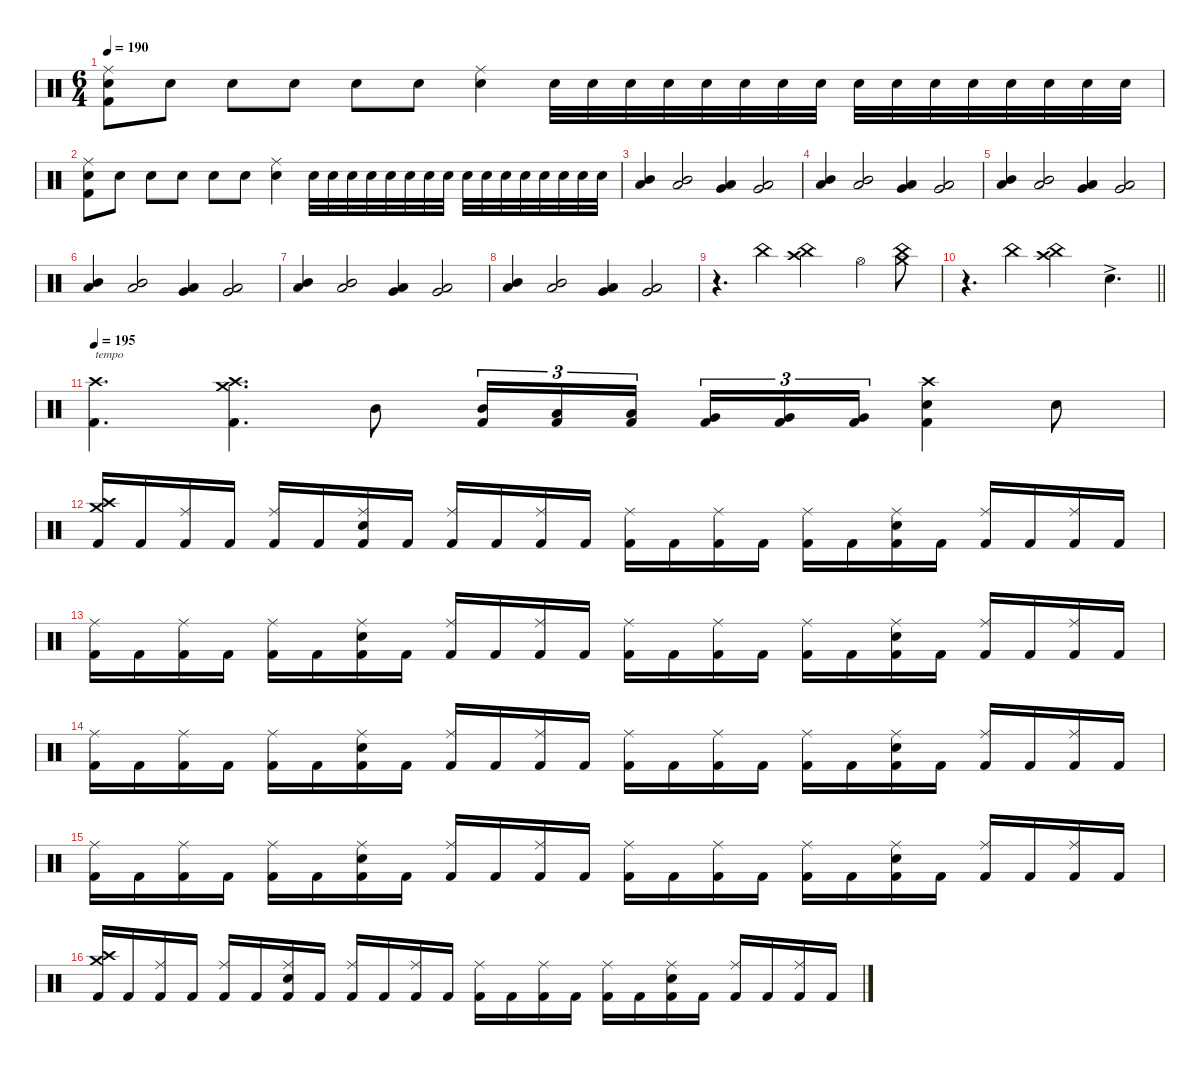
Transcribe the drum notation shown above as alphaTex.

\defaultSystemsLayout 4
\hideDynamics
\bracketExtendMode nobrackets
\singleTrackTrackNamePolicy hidden
\multiTrackTrackNamePolicy hidden
\firstSystemTrackNameMode fullname
\firstSystemTrackNameOrientation horizontal
\otherSystemsTrackNameOrientation horizontal
\track ("Drums" "drm.") {instrument percussion}
\staff {score}
\articulation defaults
\ts (6 4)
\tempo 190
\clef neutral
\ks c
("Ride (middle)" "Snare (hit) 2" "Kick (hit) 2").8{dy f beam Down} "Snare (hit) 2".8{dy mp beam Down} "Snare (hit) 2".8{beam Down} "Snare (hit) 2".8{beam Down} "Snare (hit) 2".8{dy p beam Down} "Snare (hit) 2".8{beam Down} ("Ride (middle)" "Snare (hit) 2").4{dy mf beam Down} "Snare (hit) 2".32{dy p beam Down} "Snare (hit) 2".32{beam Down} "Snare (hit) 2".32{beam Down} "Snare (hit) 2".32{beam Down} "Snare (hit) 2".32{beam Down} "Snare (hit) 2".32{beam Down} "Snare (hit) 2".32{beam Down} "Snare (hit) 2".32{dy pp beam Down} "Snare (hit) 2".32{beam Down} "Snare (hit) 2".32{beam Down} "Snare (hit) 2".32{dy p beam Down} "Snare (hit) 2".32{beam Down} "Snare (hit) 2".32{beam Down} "Snare (hit) 2".32{beam Down} "Snare (hit) 2".32{beam Down} "Snare (hit) 2".32{beam Down} |
("Ride (middle)" "Snare (hit) 2" "Kick (hit) 2").8{dy f beam Down} "Snare (hit) 2".8{dy mp beam Down} "Snare (hit) 2".8{beam Down} "Snare (hit) 2".8{beam Down} "Snare (hit) 2".8{dy p beam Down} "Snare (hit) 2".8{beam Down} ("Ride (middle)" "Snare (hit) 2").4{dy mf beam Down} "Snare (hit) 2".32{dy p beam Down} "Snare (hit) 2".32{beam Down} "Snare (hit) 2".32{beam Down} "Snare (hit) 2".32{beam Down} "Snare (hit) 2".32{beam Down} "Snare (hit) 2".32{beam Down} "Snare (hit) 2".32{beam Down} "Snare (hit) 2".32{dy pp beam Down} "Snare (hit) 2".32{beam Down} "Snare (hit) 2".32{beam Down} "Snare (hit) 2".32{dy p beam Down} "Snare (hit) 2".32{beam Down} "Snare (hit) 2".32{beam Down} "Snare (hit) 2".32{beam Down} "Snare (hit) 2".32{beam Down} "Snare (hit) 2".32{beam Down} |
("Mid Tom (hit)" "Low Tom (hit)").4{dy mf beam Up} ("Mid Tom (hit)" "Low Tom (hit)").2{beam Up} ("Low Tom (hit)" "Very Low Tom (hit)").4{beam Up} ("Low Tom (hit)" "Very Low Tom (hit)").2{beam Up} |
("Mid Tom (hit)" "Low Tom (hit)").4{beam Up} ("Mid Tom (hit)" "Low Tom (hit)").2{beam Up} ("Low Tom (hit)" "Very Low Tom (hit)").4{beam Up} ("Low Tom (hit)" "Very Low Tom (hit)").2{beam Up} |
("Mid Tom (hit)" "Low Tom (hit)").4{beam Up} ("Mid Tom (hit)" "Low Tom (hit)").2{beam Up} ("Low Tom (hit)" "Very Low Tom (hit)").4{beam Up} ("Low Tom (hit)" "Very Low Tom (hit)").2{beam Up} |
("Mid Tom (hit)" "Low Tom (hit)").4{beam Up} ("Mid Tom (hit)" "Low Tom (hit)").2{beam Up} ("Low Tom (hit)" "Very Low Tom (hit)").4{beam Up} ("Low Tom (hit)" "Very Low Tom (hit)").2{beam Up} |
("Mid Tom (hit)" "Low Tom (hit)").4{beam Up} ("Mid Tom (hit)" "Low Tom (hit)").2{beam Up} ("Low Tom (hit)" "Very Low Tom (hit)").4{beam Up} ("Low Tom (hit)" "Very Low Tom (hit)").2{beam Up} |
("Mid Tom (hit)" "Low Tom (hit)").4{beam Up} ("Mid Tom (hit)" "Low Tom (hit)").2{beam Up} ("Low Tom (hit)" "Very Low Tom (hit)").4{beam Up} ("Low Tom (hit)" "Very Low Tom (hit)").2{beam Up} |
r.4{d beam Down} "China (hit)".4{beam Down} ("China (hit)" "Crash high (hit)").2{beam Down} "Hi-Hat (open)".4{dy mp beam Down} ("China (hit)" "Crash medium (hit)").8{dy mf beam Down} |
\barLineRight lightlight
r.4{d beam Down} "China (hit)".4{beam Down} ("China (hit)" "Crash high (hit)").2{dy mp beam Down} "Snare (hit) 2"{ac}.4{d dy fff beam Down} |
\tempo 195
("Crash high (hit)" "Kick (hit) 2").4{d txt "tempo" dy f beam Down} ("Crash high (hit)" "Crash medium (hit)" "Kick (hit) 2").4{d beam Down} "Mid Tom (hit)".8{beam Down} ("Mid Tom (hit)" "Kick (hit) 2").16{tu (3 2) beam Up} ("Low Tom (hit)" "Kick (hit) 2").16{tu (3 2) beam Up} ("Low Tom (hit)" "Kick (hit) 2").16{tu (3 2) beam Up} ("Very Low Tom (hit)" "Kick (hit) 2").16{tu (3 2) beam Up} ("Very Low Tom (hit)" "Kick (hit) 2").16{tu (3 2) beam Up} ("Very Low Tom (hit)" "Kick (hit) 2").16{tu (3 2) beam Up} ("Crash high (hit)" "Snare (hit) 2" "Kick (hit) 2").4{beam Down} "Snare (hit) 2".8{beam Down} |
("Crash high (hit)" "Crash medium (hit)" "Kick (hit) 2").16{beam Up} "Kick (hit) 2".16{beam Up} ("Ride (middle)" "Kick (hit) 2").16{dy mf beam Up} "Kick (hit) 2".16{dy f beam Up} ("Ride (middle)" "Kick (hit) 2").16{dy mf beam Up} "Kick (hit) 2".16{dy f beam Up} ("Ride (middle)" "Snare (hit) 2" "Kick (hit) 2").16{dy mf beam Up} "Kick (hit) 2".16{dy f beam Up} ("Ride (middle)" "Kick (hit) 2").16{dy mf beam Up} "Kick (hit) 2".16{dy f beam Up} ("Ride (middle)" "Kick (hit) 2").16{dy mf beam Up} "Kick (hit) 2".16{dy f beam Up} ("Ride (middle)" "Kick (hit) 2").16{dy mf beam Down} "Kick (hit) 2".16{dy f beam Down} ("Ride (middle)" "Kick (hit) 2").16{dy mf beam Down} "Kick (hit) 2".16{dy f beam Down} ("Ride (middle)" "Kick (hit) 2").16{dy mf beam Down} "Kick (hit) 2".16{dy f beam Down} ("Ride (middle)" "Snare (hit) 2" "Kick (hit) 2").16{dy mf beam Up} "Kick (hit) 2".16{dy f beam Up} ("Ride (middle)" "Kick (hit) 2").16{dy mf beam Up} "Kick (hit) 2".16{dy f beam Up} ("Ride (middle)" "Kick (hit) 2").16{dy mf beam Up} "Kick (hit) 2".16{dy f beam Up} |
("Ride (middle)" "Kick (hit) 2").16{dy mf beam Down} "Kick (hit) 2".16{dy f beam Down} ("Ride (middle)" "Kick (hit) 2").16{dy mf beam Down} "Kick (hit) 2".16{dy f beam Down} ("Ride (middle)" "Kick (hit) 2").16{dy mf beam Down} "Kick (hit) 2".16{dy f beam Down} ("Ride (middle)" "Snare (hit) 2" "Kick (hit) 2").16{dy mf beam Up} "Kick (hit) 2".16{dy f beam Up} ("Ride (middle)" "Kick (hit) 2").16{dy mf beam Up} "Kick (hit) 2".16{dy f beam Up} ("Ride (middle)" "Kick (hit) 2").16{dy mf beam Up} "Kick (hit) 2".16{dy f beam Up} ("Ride (middle)" "Kick (hit) 2").16{dy mf beam Down} "Kick (hit) 2".16{dy f beam Down} ("Ride (middle)" "Kick (hit) 2").16{dy mf beam Down} "Kick (hit) 2".16{dy f beam Down} ("Ride (middle)" "Kick (hit) 2").16{dy mf beam Down} "Kick (hit) 2".16{dy f beam Down} ("Ride (middle)" "Snare (hit) 2" "Kick (hit) 2").16{dy mf beam Up} "Kick (hit) 2".16{dy f beam Up} ("Ride (middle)" "Kick (hit) 2").16{dy mf beam Up} "Kick (hit) 2".16{dy f beam Up} ("Ride (middle)" "Kick (hit) 2").16{dy mf beam Up} "Kick (hit) 2".16{dy f beam Up} |
("Ride (middle)" "Kick (hit) 2").16{dy mf beam Down} "Kick (hit) 2".16{dy f beam Down} ("Ride (middle)" "Kick (hit) 2").16{dy mf beam Down} "Kick (hit) 2".16{dy f beam Down} ("Ride (middle)" "Kick (hit) 2").16{dy mf beam Down} "Kick (hit) 2".16{dy f beam Down} ("Ride (middle)" "Snare (hit) 2" "Kick (hit) 2").16{dy mf beam Up} "Kick (hit) 2".16{dy f beam Up} ("Ride (middle)" "Kick (hit) 2").16{dy mf beam Up} "Kick (hit) 2".16{dy f beam Up} ("Ride (middle)" "Kick (hit) 2").16{dy mf beam Up} "Kick (hit) 2".16{dy f beam Up} ("Ride (middle)" "Kick (hit) 2").16{dy mf beam Down} "Kick (hit) 2".16{dy f beam Down} ("Ride (middle)" "Kick (hit) 2").16{dy mf beam Down} "Kick (hit) 2".16{dy f beam Down} ("Ride (middle)" "Kick (hit) 2").16{dy mf beam Down} "Kick (hit) 2".16{dy f beam Down} ("Ride (middle)" "Snare (hit) 2" "Kick (hit) 2").16{dy mf beam Up} "Kick (hit) 2".16{dy f beam Up} ("Ride (middle)" "Kick (hit) 2").16{dy mf beam Up} "Kick (hit) 2".16{dy f beam Up} ("Ride (middle)" "Kick (hit) 2").16{dy mf beam Up} "Kick (hit) 2".16{dy f beam Up} |
("Ride (middle)" "Kick (hit) 2").16{dy mf beam Down} "Kick (hit) 2".16{dy f beam Down} ("Ride (middle)" "Kick (hit) 2").16{dy mf beam Down} "Kick (hit) 2".16{dy f beam Down} ("Ride (middle)" "Kick (hit) 2").16{dy mf beam Down} "Kick (hit) 2".16{dy f beam Down} ("Ride (middle)" "Snare (hit) 2" "Kick (hit) 2").16{dy mf beam Up} "Kick (hit) 2".16{dy f beam Up} ("Ride (middle)" "Kick (hit) 2").16{dy mf beam Up} "Kick (hit) 2".16{dy f beam Up} ("Ride (middle)" "Kick (hit) 2").16{dy mf beam Up} "Kick (hit) 2".16{dy f beam Up} ("Ride (middle)" "Kick (hit) 2").16{dy mf beam Down} "Kick (hit) 2".16{dy f beam Down} ("Ride (middle)" "Kick (hit) 2").16{dy mf beam Down} "Kick (hit) 2".16{dy f beam Down} ("Ride (middle)" "Kick (hit) 2").16{dy mf beam Down} "Kick (hit) 2".16{dy f beam Down} ("Ride (middle)" "Snare (hit) 2" "Kick (hit) 2").16{dy mf beam Up} "Kick (hit) 2".16{dy f beam Up} ("Ride (middle)" "Kick (hit) 2").16{dy mf beam Up} "Kick (hit) 2".16{dy f beam Up} ("Ride (middle)" "Kick (hit) 2").16{dy mf beam Up} "Kick (hit) 2".16{dy f beam Up} |
("Crash high (hit)" "Crash medium (hit)" "Kick (hit) 2").16{beam Up} "Kick (hit) 2".16{beam Up} ("Ride (middle)" "Kick (hit) 2").16{dy mf beam Up} "Kick (hit) 2".16{dy f beam Up} ("Ride (middle)" "Kick (hit) 2").16{dy mf beam Up} "Kick (hit) 2".16{dy f beam Up} ("Ride (middle)" "Snare (hit) 2" "Kick (hit) 2").16{dy mf beam Up} "Kick (hit) 2".16{dy f beam Up} ("Ride (middle)" "Kick (hit) 2").16{dy mf beam Up} "Kick (hit) 2".16{dy f beam Up} ("Ride (middle)" "Kick (hit) 2").16{dy mf beam Up} "Kick (hit) 2".16{dy f beam Up} ("Ride (middle)" "Kick (hit) 2").16{dy mf beam Down} "Kick (hit) 2".16{dy f beam Down} ("Ride (middle)" "Kick (hit) 2").16{dy mf beam Down} "Kick (hit) 2".16{dy f beam Down} ("Ride (middle)" "Kick (hit) 2").16{dy mf beam Down} "Kick (hit) 2".16{dy f beam Down} ("Ride (middle)" "Snare (hit) 2" "Kick (hit) 2").16{dy mf beam Up} "Kick (hit) 2".16{dy f beam Up} ("Ride (middle)" "Kick (hit) 2").16{dy mf beam Up} "Kick (hit) 2".16{dy f beam Up} ("Ride (middle)" "Kick (hit) 2").16{dy mf beam Up} "Kick (hit) 2".16{dy f beam Up}
